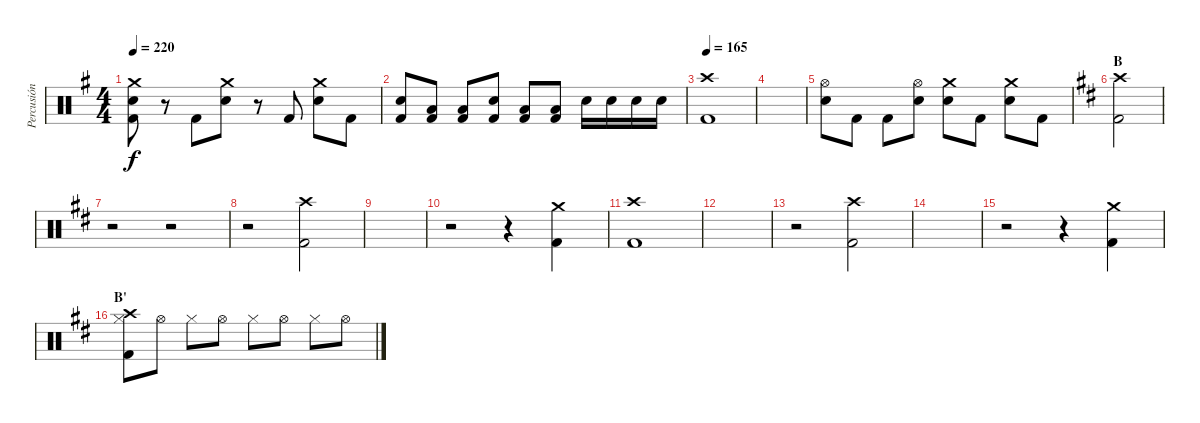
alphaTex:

\track ("Percusión" "Percusión") {instrument percussion}
\staff {score}
\articulation defaults
\ts (4 4)
\tempo 220
\clef neutral
\ks g
("Crash medium (hit)" "Electric Snare (hit)" "Kick (hit) 2").8{dy f} r.8 "Kick (hit) 2".8 ("Crash medium (hit)" "Electric Snare (hit)").8 r.8 "Kick (hit) 2".8 ("Crash medium (hit)" "Electric Snare (hit)").8 "Kick (hit) 2".8 |
("Electric Snare (hit)" "Kick (hit) 2").8 ("Low Tom (hit)" "Kick (hit) 2").8 ("Low Tom (hit)" "Kick (hit) 2").8 ("Electric Snare (hit)" "Kick (hit) 2").8 ("Low Tom (hit)" "Kick (hit) 2").8 ("Low Tom (hit)" "Kick (hit) 2").8 "Electric Snare (hit)".16 "Electric Snare (hit)".16 "Electric Snare (hit)".16 "Electric Snare (hit)".16 |
\tempo 165
("Crash high (hit)" "Kick (hit) 2").1 |
|
("Hi-Hat (open)" "Electric Snare (hit)").8 "Kick (hit) 2".8 "Kick (hit) 2".8 ("Hi-Hat (open)" "Electric Snare (hit)").8 ("Crash medium (hit)" "Electric Snare (hit)").8 "Kick (hit) 2".8 ("Crash medium (hit)" "Electric Snare (hit)").8 "Kick (hit) 2".8 |
\section ("" "B")
\ks d
("Crash high (hit)" "Kick (hit) 2").2 |
r.2 r.2 |
r.2 ("Crash high (hit)" "Kick (hit) 2").2 |
|
r.2 r.4 ("Crash medium (hit)" "Kick (hit) 2").4 |
("Crash high (hit)" "Kick (hit) 2").1 |
|
r.2 ("Crash high (hit)" "Kick (hit) 2").2 |
|
r.2 r.4 ("Crash medium (hit)" "Kick (hit) 2").4 |
\section ("" "B'")
("Crash high (hit)" "Hi-Hat (closed)" "Kick (hit) 2").8 "Hi-Hat (open)".8 "Hi-Hat (closed)".8 "Hi-Hat (open)".8 "Hi-Hat (closed)".8 "Hi-Hat (open)".8 "Hi-Hat (closed)".8 "Hi-Hat (open)".8
